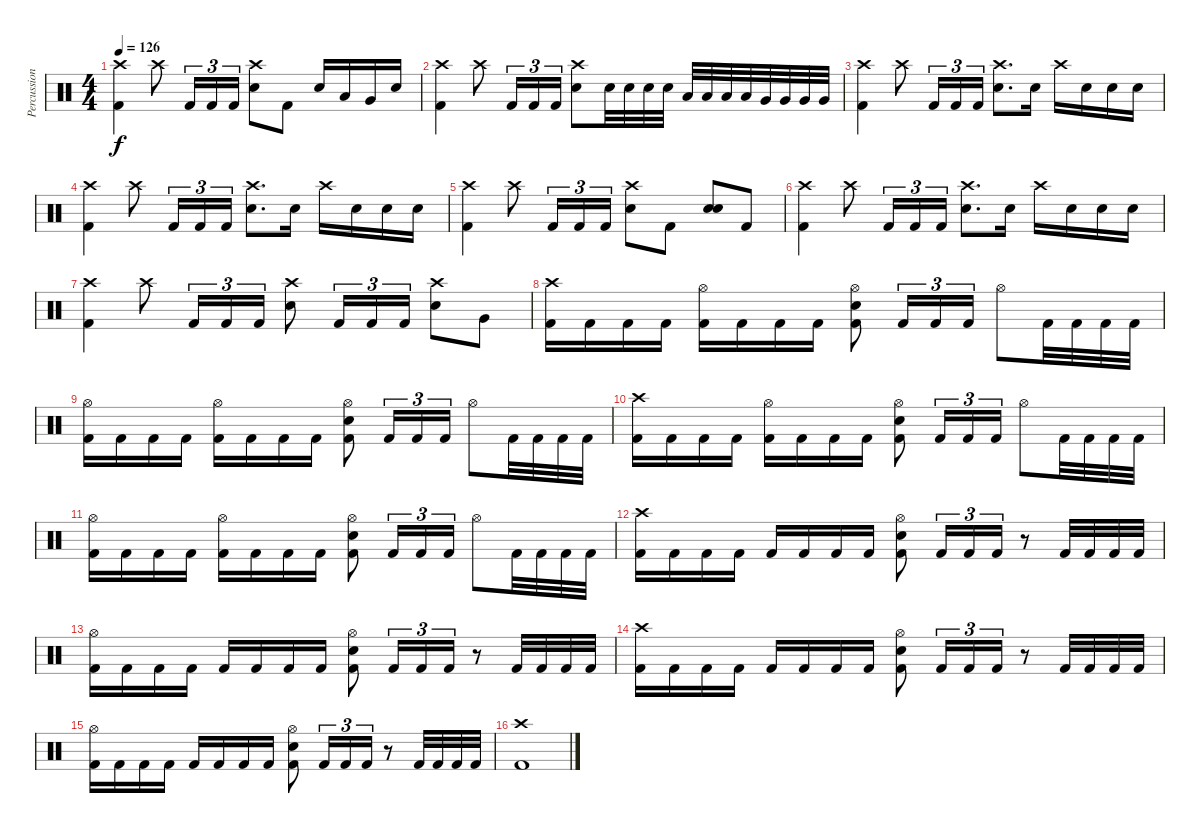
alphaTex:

\track ("Percussion" "Percussion") {instrument percussion}
\staff {score}
\articulation defaults
\ts (4 4)
\tempo 126
\clef neutral
\ks c
("Crash high (hit)" "Kick (hit) 2").4{dy f} "Crash high (hit)".8 "Kick (hit) 2".16{tu (3 2)} "Kick (hit) 2".16{tu (3 2)} "Kick (hit) 2".16{tu (3 2)} ("Crash high (hit)" "Electric Snare (hit)").8 "Kick (hit) 2".8 "Electric Snare (hit)".16 "Low Tom (hit)".16 "Very Low Tom (hit)".16 "Electric Snare (hit)".16 |
("Crash high (hit)" "Kick (hit) 2").4 "Crash high (hit)".8 "Kick (hit) 2".16{tu (3 2)} "Kick (hit) 2".16{tu (3 2)} "Kick (hit) 2".16{tu (3 2)} ("Crash high (hit)" "Electric Snare (hit)").8 "Electric Snare (hit)".32 "Electric Snare (hit)".32 "Electric Snare (hit)".32 "Electric Snare (hit)".32 "Low Tom (hit)".32 "Low Tom (hit)".32 "Low Tom (hit)".32 "Low Tom (hit)".32 "Very Low Tom (hit)".32 "Very Low Tom (hit)".32 "Very Low Tom (hit)".32 "Very Low Tom (hit)".32 |
("Crash high (hit)" "Kick (hit) 2").4 "Crash high (hit)".8 "Kick (hit) 2".16{tu (3 2)} "Kick (hit) 2".16{tu (3 2)} "Kick (hit) 2".16{tu (3 2)} ("Crash high (hit)" "Electric Snare (hit)").8{d} "Electric Snare (hit)".16 "Crash high (hit)".16 "Electric Snare (hit)".16 "Electric Snare (hit)".16 "Electric Snare (hit)".16 |
("Crash high (hit)" "Kick (hit) 2").4 "Crash high (hit)".8 "Kick (hit) 2".16{tu (3 2)} "Kick (hit) 2".16{tu (3 2)} "Kick (hit) 2".16{tu (3 2)} ("Crash high (hit)" "Electric Snare (hit)").8{d} "Electric Snare (hit)".16 "Crash high (hit)".16 "Electric Snare (hit)".16 "Electric Snare (hit)".16 "Electric Snare (hit)".16 |
("Crash high (hit)" "Kick (hit) 2").4 "Crash high (hit)".8 "Kick (hit) 2".16{tu (3 2)} "Kick (hit) 2".16{tu (3 2)} "Kick (hit) 2".16{tu (3 2)} ("Crash high (hit)" "Electric Snare (hit)").8 "Kick (hit) 2".8 ("Electric Snare (hit)" "Electric Snare (hit)").8 "Kick (hit) 2".8 |
("Crash high (hit)" "Kick (hit) 2").4 "Crash high (hit)".8 "Kick (hit) 2".16{tu (3 2)} "Kick (hit) 2".16{tu (3 2)} "Kick (hit) 2".16{tu (3 2)} ("Crash high (hit)" "Electric Snare (hit)").8{d} "Electric Snare (hit)".16 "Crash high (hit)".16 "Electric Snare (hit)".16 "Electric Snare (hit)".16 "Electric Snare (hit)".16 |
("Crash high (hit)" "Kick (hit) 2").4 "Crash high (hit)".8 "Kick (hit) 2".16{tu (3 2)} "Kick (hit) 2".16{tu (3 2)} "Kick (hit) 2".16{tu (3 2)} ("Crash high (hit)" "Electric Snare (hit)").8 "Kick (hit) 2".16{tu (3 2)} "Kick (hit) 2".16{tu (3 2)} "Kick (hit) 2".16{tu (3 2)} ("Crash high (hit)" "Electric Snare (hit)").8 "Very Low Tom (hit)".8 |
("Crash high (hit)" "Kick (hit) 2").16 "Kick (hit) 2".16 "Kick (hit) 2".16 "Kick (hit) 2".16 ("Hi-Hat (open)" "Kick (hit) 2").16 "Kick (hit) 2".16 "Kick (hit) 2".16 "Kick (hit) 2".16 ("Hi-Hat (open)" "Electric Snare (hit)" "Kick (hit) 2").8 "Kick (hit) 2".16{tu (3 2)} "Kick (hit) 2".16{tu (3 2)} "Kick (hit) 2".16{tu (3 2)} "Hi-Hat (open)".8 "Kick (hit) 2".32 "Kick (hit) 2".32 "Kick (hit) 2".32 "Kick (hit) 2".32 |
("Hi-Hat (open)" "Kick (hit) 2").16 "Kick (hit) 2".16 "Kick (hit) 2".16 "Kick (hit) 2".16 ("Hi-Hat (open)" "Kick (hit) 2").16 "Kick (hit) 2".16 "Kick (hit) 2".16 "Kick (hit) 2".16 ("Hi-Hat (open)" "Electric Snare (hit)" "Kick (hit) 2").8 "Kick (hit) 2".16{tu (3 2)} "Kick (hit) 2".16{tu (3 2)} "Kick (hit) 2".16{tu (3 2)} "Hi-Hat (open)".8 "Kick (hit) 2".32 "Kick (hit) 2".32 "Kick (hit) 2".32 "Kick (hit) 2".32 |
("Crash high (hit)" "Kick (hit) 2").16 "Kick (hit) 2".16 "Kick (hit) 2".16 "Kick (hit) 2".16 ("Hi-Hat (open)" "Kick (hit) 2").16 "Kick (hit) 2".16 "Kick (hit) 2".16 "Kick (hit) 2".16 ("Hi-Hat (open)" "Electric Snare (hit)" "Kick (hit) 2").8 "Kick (hit) 2".16{tu (3 2)} "Kick (hit) 2".16{tu (3 2)} "Kick (hit) 2".16{tu (3 2)} "Hi-Hat (open)".8 "Kick (hit) 2".32 "Kick (hit) 2".32 "Kick (hit) 2".32 "Kick (hit) 2".32 |
("Hi-Hat (open)" "Kick (hit) 2").16 "Kick (hit) 2".16 "Kick (hit) 2".16 "Kick (hit) 2".16 ("Hi-Hat (open)" "Kick (hit) 2").16 "Kick (hit) 2".16 "Kick (hit) 2".16 "Kick (hit) 2".16 ("Hi-Hat (open)" "Electric Snare (hit)" "Kick (hit) 2").8 "Kick (hit) 2".16{tu (3 2)} "Kick (hit) 2".16{tu (3 2)} "Kick (hit) 2".16{tu (3 2)} "Hi-Hat (open)".8 "Kick (hit) 2".32 "Kick (hit) 2".32 "Kick (hit) 2".32 "Kick (hit) 2".32 |
("Crash high (hit)" "Kick (hit) 2").16 "Kick (hit) 2".16 "Kick (hit) 2".16 "Kick (hit) 2".16 "Kick (hit) 2".16 "Kick (hit) 2".16 "Kick (hit) 2".16 "Kick (hit) 2".16 ("Hi-Hat (open)" "Electric Snare (hit)" "Kick (hit) 2").8 "Kick (hit) 2".16{tu (3 2)} "Kick (hit) 2".16{tu (3 2)} "Kick (hit) 2".16{tu (3 2)} r.8 "Kick (hit) 2".32 "Kick (hit) 2".32 "Kick (hit) 2".32 "Kick (hit) 2".32 |
("Hi-Hat (open)" "Kick (hit) 2").16 "Kick (hit) 2".16 "Kick (hit) 2".16 "Kick (hit) 2".16 "Kick (hit) 2".16 "Kick (hit) 2".16 "Kick (hit) 2".16 "Kick (hit) 2".16 ("Hi-Hat (open)" "Electric Snare (hit)" "Kick (hit) 2").8 "Kick (hit) 2".16{tu (3 2)} "Kick (hit) 2".16{tu (3 2)} "Kick (hit) 2".16{tu (3 2)} r.8 "Kick (hit) 2".32 "Kick (hit) 2".32 "Kick (hit) 2".32 "Kick (hit) 2".32 |
("Crash high (hit)" "Kick (hit) 2").16 "Kick (hit) 2".16 "Kick (hit) 2".16 "Kick (hit) 2".16 "Kick (hit) 2".16 "Kick (hit) 2".16 "Kick (hit) 2".16 "Kick (hit) 2".16 ("Hi-Hat (open)" "Electric Snare (hit)" "Kick (hit) 2").8 "Kick (hit) 2".16{tu (3 2)} "Kick (hit) 2".16{tu (3 2)} "Kick (hit) 2".16{tu (3 2)} r.8 "Kick (hit) 2".32 "Kick (hit) 2".32 "Kick (hit) 2".32 "Kick (hit) 2".32 |
("Hi-Hat (open)" "Kick (hit) 2").16 "Kick (hit) 2".16 "Kick (hit) 2".16 "Kick (hit) 2".16 "Kick (hit) 2".16 "Kick (hit) 2".16 "Kick (hit) 2".16 "Kick (hit) 2".16 ("Hi-Hat (open)" "Electric Snare (hit)" "Kick (hit) 2").8 "Kick (hit) 2".16{tu (3 2)} "Kick (hit) 2".16{tu (3 2)} "Kick (hit) 2".16{tu (3 2)} r.8 "Kick (hit) 2".32 "Kick (hit) 2".32 "Kick (hit) 2".32 "Kick (hit) 2".32 |
("Crash high (hit)" "Kick (hit) 2").1
